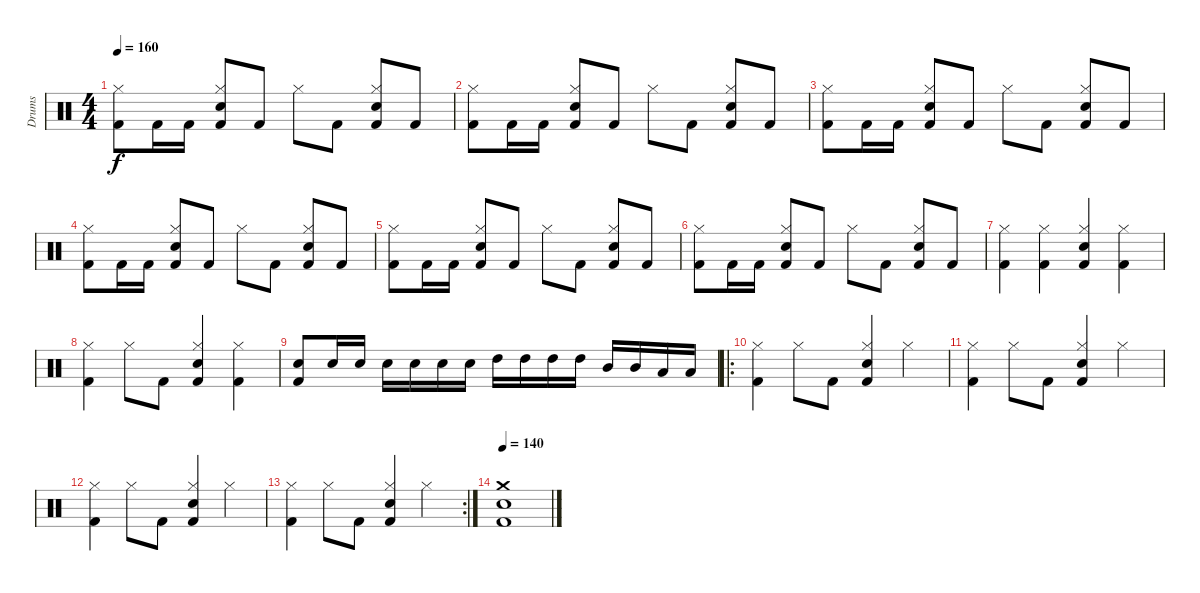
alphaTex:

\track ("Drums" "Drums") {instrument percussion}
\staff {score}
\articulation defaults
\ts (4 4)
\tempo 160
\clef neutral
\ks c
("Kick (hit) 2" "Hi-Hat (closed)").8{dy f} "Kick (hit) 2".16 "Kick (hit) 2".16 ("Kick (hit) 2" "Snare (hit) 2" "Hi-Hat (closed)").8 "Kick (hit) 2".8 "Hi-Hat (closed)".8 "Kick (hit) 2".8 ("Kick (hit) 2" "Snare (hit) 2" "Hi-Hat (closed)").8 "Kick (hit) 2".8 |
("Kick (hit) 2" "Hi-Hat (closed)").8 "Kick (hit) 2".16 "Kick (hit) 2".16 ("Kick (hit) 2" "Snare (hit) 2" "Hi-Hat (closed)").8 "Kick (hit) 2".8 "Hi-Hat (closed)".8 "Kick (hit) 2".8 ("Kick (hit) 2" "Snare (hit) 2" "Hi-Hat (closed)").8 "Kick (hit) 2".8 |
("Kick (hit) 2" "Hi-Hat (closed)").8 "Kick (hit) 2".16 "Kick (hit) 2".16 ("Kick (hit) 2" "Snare (hit) 2" "Hi-Hat (closed)").8 "Kick (hit) 2".8 "Hi-Hat (closed)".8 "Kick (hit) 2".8 ("Kick (hit) 2" "Snare (hit) 2" "Hi-Hat (closed)").8 "Kick (hit) 2".8 |
("Kick (hit) 2" "Hi-Hat (closed)").8 "Kick (hit) 2".16 "Kick (hit) 2".16 ("Kick (hit) 2" "Snare (hit) 2" "Hi-Hat (closed)").8 "Kick (hit) 2".8 "Hi-Hat (closed)".8 "Kick (hit) 2".8 ("Kick (hit) 2" "Snare (hit) 2" "Hi-Hat (closed)").8 "Kick (hit) 2".8 |
("Kick (hit) 2" "Hi-Hat (closed)").8 "Kick (hit) 2".16 "Kick (hit) 2".16 ("Kick (hit) 2" "Snare (hit) 2" "Hi-Hat (closed)").8 "Kick (hit) 2".8 "Hi-Hat (closed)".8 "Kick (hit) 2".8 ("Kick (hit) 2" "Snare (hit) 2" "Hi-Hat (closed)").8 "Kick (hit) 2".8 |
("Kick (hit) 2" "Hi-Hat (closed)").8 "Kick (hit) 2".16 "Kick (hit) 2".16 ("Kick (hit) 2" "Snare (hit) 2" "Hi-Hat (closed)").8 "Kick (hit) 2".8 "Hi-Hat (closed)".8 "Kick (hit) 2".8 ("Kick (hit) 2" "Snare (hit) 2" "Hi-Hat (closed)").8 "Kick (hit) 2".8 |
("Kick (hit) 2" "Hi-Hat (closed)").4 ("Kick (hit) 2" "Hi-Hat (closed)").4 ("Kick (hit) 2" "Snare (hit) 2" "Hi-Hat (closed)").4 ("Kick (hit) 2" "Hi-Hat (closed)").4 |
("Kick (hit) 2" "Hi-Hat (closed)").4 "Hi-Hat (closed)".8 "Kick (hit) 2".8 ("Kick (hit) 2" "Snare (hit) 2" "Hi-Hat (closed)").4 ("Kick (hit) 2" "Hi-Hat (closed)").4 |
("Kick (hit) 2" "Snare (hit) 2").8 "Snare (hit) 2".16 "Snare (hit) 2".16 "Snare (hit) 2".16 "Snare (hit) 2".16 "Snare (hit) 2".16 "Snare (hit) 2".16 "High Tom (hit)".16 "High Tom (hit)".16 "High Tom (hit)".16 "High Tom (hit)".16 "Mid Tom (hit)".16 "Mid Tom (hit)".16 "Low Tom (hit)".16 "Low Tom (hit)".16 |
\ro
("Kick (hit) 2" "Hi-Hat (closed)").4 "Hi-Hat (closed)".8 "Kick (hit) 2".8 ("Kick (hit) 2" "Snare (hit) 2" "Hi-Hat (closed)").4 "Hi-Hat (closed)".4 |
("Kick (hit) 2" "Hi-Hat (closed)").4 "Hi-Hat (closed)".8 "Kick (hit) 2".8 ("Kick (hit) 2" "Snare (hit) 2" "Hi-Hat (closed)").4 "Hi-Hat (closed)".4 |
("Kick (hit) 2" "Hi-Hat (closed)").4 "Hi-Hat (closed)".8 "Kick (hit) 2".8 ("Kick (hit) 2" "Snare (hit) 2" "Hi-Hat (closed)").4 "Hi-Hat (closed)".4 |
\rc 2
("Kick (hit) 2" "Hi-Hat (closed)").4 "Hi-Hat (closed)".8 "Kick (hit) 2".8 ("Kick (hit) 2" "Snare (hit) 2" "Hi-Hat (closed)").4 "Hi-Hat (closed)".4 |
\tempo 140
("Kick (hit) 2" "Snare (hit) 2" "Crash medium (hit)").1
